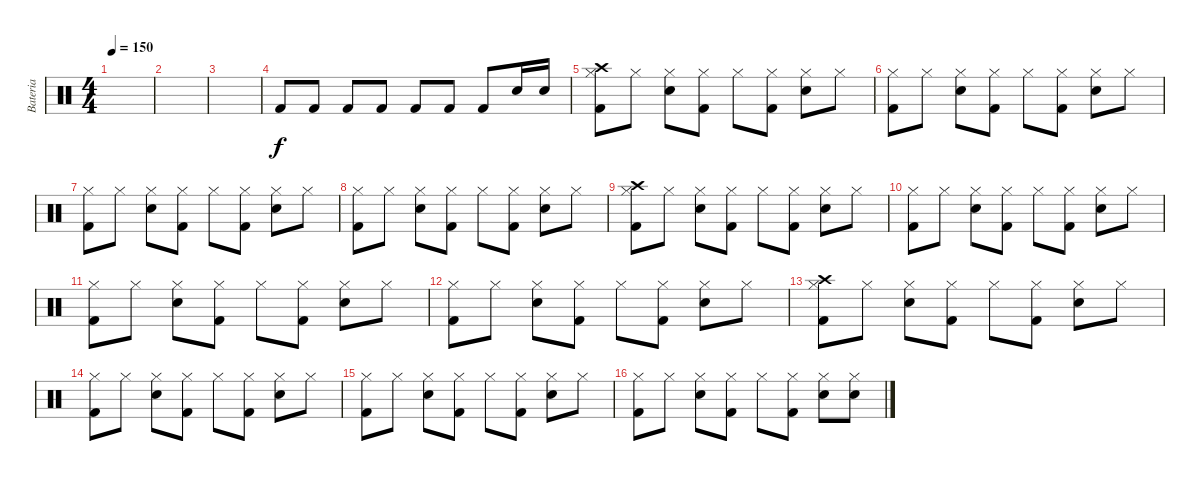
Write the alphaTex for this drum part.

\track ("Bateria" "Bateria") {instrument percussion}
\staff {score}
\articulation defaults
\ts (4 4)
\tempo 150
\clef neutral
\ks c
|
|
|
"Kick (hit) 2".8 "Kick (hit) 2".8 "Kick (hit) 2".8 "Kick (hit) 2".8 "Kick (hit) 2".8 "Kick (hit) 2".8 "Kick (hit) 2".8 "Snare (hit) 2".16 "Snare (hit) 2".16 |
("Kick (hit) 2" "Crash high (hit)" "Hi-Hat (closed)").8 "Hi-Hat (closed)".8 ("Electric Snare (hit)" "Hi-Hat (closed)").8 ("Kick (hit) 2" "Hi-Hat (closed)").8 "Hi-Hat (closed)".8 ("Kick (hit) 2" "Hi-Hat (closed)").8 ("Electric Snare (hit)" "Hi-Hat (closed)").8 "Hi-Hat (closed)".8 |
("Kick (hit) 2" "Hi-Hat (closed)").8 "Hi-Hat (closed)".8 ("Electric Snare (hit)" "Hi-Hat (closed)").8 ("Kick (hit) 2" "Hi-Hat (closed)").8 "Hi-Hat (closed)".8 ("Kick (hit) 2" "Hi-Hat (closed)").8 ("Electric Snare (hit)" "Hi-Hat (closed)").8 "Hi-Hat (closed)".8 |
("Kick (hit) 2" "Hi-Hat (closed)").8 "Hi-Hat (closed)".8 ("Electric Snare (hit)" "Hi-Hat (closed)").8 ("Kick (hit) 2" "Hi-Hat (closed)").8 "Hi-Hat (closed)".8 ("Kick (hit) 2" "Hi-Hat (closed)").8 ("Electric Snare (hit)" "Hi-Hat (closed)").8 "Hi-Hat (closed)".8 |
("Kick (hit) 2" "Hi-Hat (closed)").8 "Hi-Hat (closed)".8 ("Electric Snare (hit)" "Hi-Hat (closed)").8 ("Kick (hit) 2" "Hi-Hat (closed)").8 "Hi-Hat (closed)".8 ("Kick (hit) 2" "Hi-Hat (closed)").8 ("Electric Snare (hit)" "Hi-Hat (closed)").8 "Hi-Hat (closed)".8 |
("Kick (hit) 2" "Crash high (hit)" "Hi-Hat (closed)").8 "Hi-Hat (closed)".8 ("Electric Snare (hit)" "Hi-Hat (closed)").8 ("Kick (hit) 2" "Hi-Hat (closed)").8 "Hi-Hat (closed)".8 ("Kick (hit) 2" "Hi-Hat (closed)").8 ("Electric Snare (hit)" "Hi-Hat (closed)").8 "Hi-Hat (closed)".8 |
("Kick (hit) 2" "Hi-Hat (closed)").8 "Hi-Hat (closed)".8 ("Electric Snare (hit)" "Hi-Hat (closed)").8 ("Kick (hit) 2" "Hi-Hat (closed)").8 "Hi-Hat (closed)".8 ("Kick (hit) 2" "Hi-Hat (closed)").8 ("Electric Snare (hit)" "Hi-Hat (closed)").8 "Hi-Hat (closed)".8 |
("Kick (hit) 2" "Hi-Hat (closed)").8 "Hi-Hat (closed)".8 ("Electric Snare (hit)" "Hi-Hat (closed)").8 ("Kick (hit) 2" "Hi-Hat (closed)").8 "Hi-Hat (closed)".8 ("Kick (hit) 2" "Hi-Hat (closed)").8 ("Electric Snare (hit)" "Hi-Hat (closed)").8 "Hi-Hat (closed)".8 |
("Kick (hit) 2" "Hi-Hat (closed)").8 "Hi-Hat (closed)".8 ("Electric Snare (hit)" "Hi-Hat (closed)").8 ("Kick (hit) 2" "Hi-Hat (closed)").8 "Hi-Hat (closed)".8 ("Kick (hit) 2" "Hi-Hat (closed)").8 ("Electric Snare (hit)" "Hi-Hat (closed)").8 "Hi-Hat (closed)".8 |
("Kick (hit) 2" "Crash high (hit)" "Hi-Hat (closed)").8 "Hi-Hat (closed)".8 ("Electric Snare (hit)" "Hi-Hat (closed)").8 ("Kick (hit) 2" "Hi-Hat (closed)").8 "Hi-Hat (closed)".8 ("Kick (hit) 2" "Hi-Hat (closed)").8 ("Electric Snare (hit)" "Hi-Hat (closed)").8 "Hi-Hat (closed)".8 |
("Kick (hit) 2" "Hi-Hat (closed)").8 "Hi-Hat (closed)".8 ("Electric Snare (hit)" "Hi-Hat (closed)").8 ("Kick (hit) 2" "Hi-Hat (closed)").8 "Hi-Hat (closed)".8 ("Kick (hit) 2" "Hi-Hat (closed)").8 ("Electric Snare (hit)" "Hi-Hat (closed)").8 "Hi-Hat (closed)".8 |
("Kick (hit) 2" "Hi-Hat (closed)").8 "Hi-Hat (closed)".8 ("Electric Snare (hit)" "Hi-Hat (closed)").8 ("Kick (hit) 2" "Hi-Hat (closed)").8 "Hi-Hat (closed)".8 ("Kick (hit) 2" "Hi-Hat (closed)").8 ("Electric Snare (hit)" "Hi-Hat (closed)").8 "Hi-Hat (closed)".8 |
("Kick (hit) 2" "Hi-Hat (closed)").8 "Hi-Hat (closed)".8 ("Electric Snare (hit)" "Hi-Hat (closed)").8 ("Kick (hit) 2" "Hi-Hat (closed)").8 "Hi-Hat (closed)".8 ("Kick (hit) 2" "Hi-Hat (closed)").8 ("Electric Snare (hit)" "Hi-Hat (closed)").8 ("Electric Snare (hit)" "Hi-Hat (closed)").8
